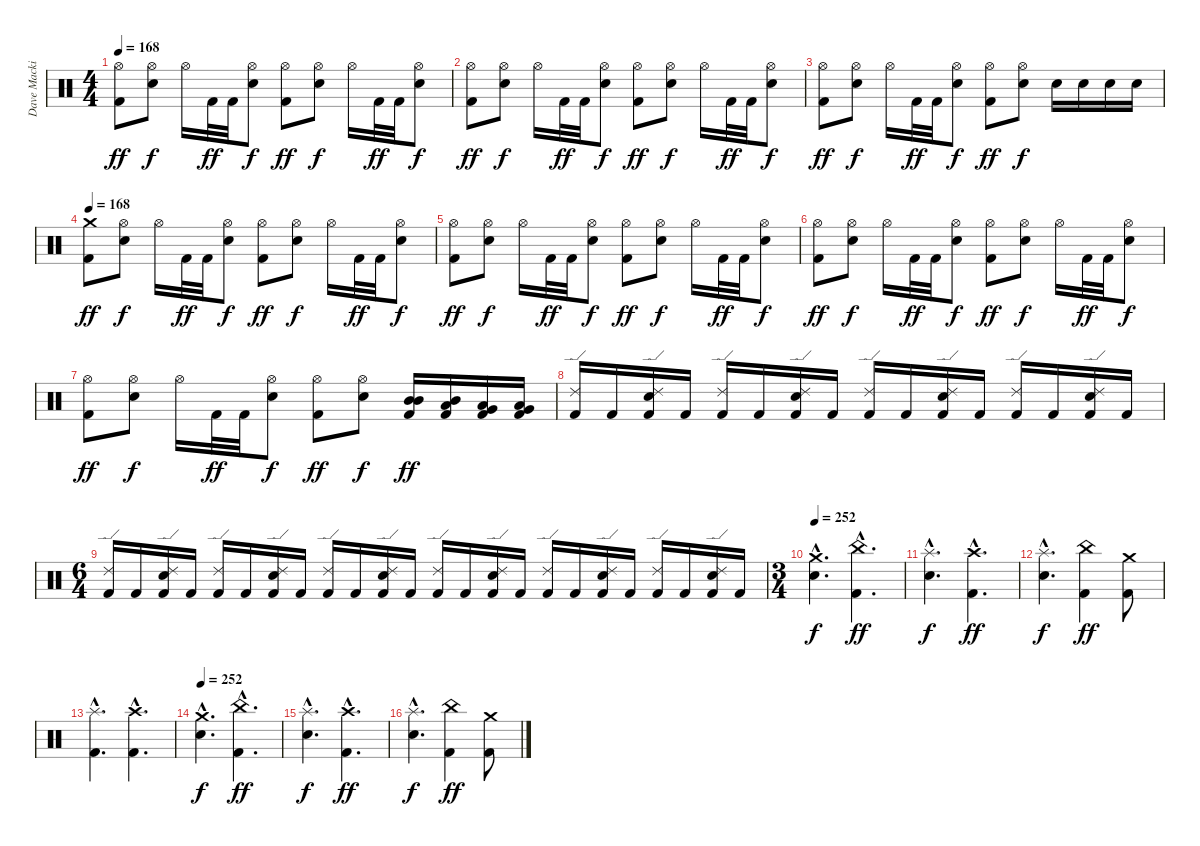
\track ("Dave Mackintosh" "Dave Macki") {instrument percussion}
\staff {score}
\articulation defaults
\ts (4 4)
\tempo 168
\clef neutral
\ks c
("Hi-Hat (open)" "Kick (hit) 2").8{dy ff} ("Hi-Hat (open)" "Electric Snare (hit)").8{dy f} "Hi-Hat (open)".16 "Kick (hit) 2".32{dy ff} "Kick (hit) 2".32 ("Hi-Hat (open)" "Electric Snare (hit)").8{dy f} ("Hi-Hat (open)" "Kick (hit) 2").8{dy ff} ("Hi-Hat (open)" "Electric Snare (hit)").8{dy f} "Hi-Hat (open)".16 "Kick (hit) 2".32{dy ff} "Kick (hit) 2".32 ("Hi-Hat (open)" "Electric Snare (hit)").8{dy f} |
("Hi-Hat (open)" "Kick (hit) 2").8{dy ff} ("Hi-Hat (open)" "Electric Snare (hit)").8{dy f} "Hi-Hat (open)".16 "Kick (hit) 2".32{dy ff} "Kick (hit) 2".32 ("Hi-Hat (open)" "Electric Snare (hit)").8{dy f} ("Hi-Hat (open)" "Kick (hit) 2").8{dy ff} ("Hi-Hat (open)" "Electric Snare (hit)").8{dy f} "Hi-Hat (open)".16 "Kick (hit) 2".32{dy ff} "Kick (hit) 2".32 ("Hi-Hat (open)" "Electric Snare (hit)").8{dy f} |
("Hi-Hat (open)" "Kick (hit) 2").8{dy ff} ("Hi-Hat (open)" "Electric Snare (hit)").8{dy f} "Hi-Hat (open)".16 "Kick (hit) 2".32{dy ff} "Kick (hit) 2".32 ("Hi-Hat (open)" "Electric Snare (hit)").8{dy f} ("Hi-Hat (open)" "Kick (hit) 2").8{dy ff} ("Hi-Hat (open)" "Electric Snare (hit)").8{dy f} "Electric Snare (hit)".16 "Electric Snare (hit)".16 "Electric Snare (hit)".16 "Electric Snare (hit)".16 |
\tempo 168
("Crash medium (hit)" "Kick (hit) 2").8{dy ff} ("Hi-Hat (open)" "Electric Snare (hit)").8{dy f} "Hi-Hat (open)".16 "Kick (hit) 2".32{dy ff} "Kick (hit) 2".32 ("Hi-Hat (open)" "Electric Snare (hit)").8{dy f} ("Hi-Hat (open)" "Kick (hit) 2").8{dy ff} ("Hi-Hat (open)" "Electric Snare (hit)").8{dy f} "Hi-Hat (open)".16 "Kick (hit) 2".32{dy ff} "Kick (hit) 2".32 ("Hi-Hat (open)" "Electric Snare (hit)").8{dy f} |
("Hi-Hat (open)" "Kick (hit) 2").8{dy ff} ("Hi-Hat (open)" "Electric Snare (hit)").8{dy f} "Hi-Hat (open)".16 "Kick (hit) 2".32{dy ff} "Kick (hit) 2".32 ("Hi-Hat (open)" "Electric Snare (hit)").8{dy f} ("Hi-Hat (open)" "Kick (hit) 2").8{dy ff} ("Hi-Hat (open)" "Electric Snare (hit)").8{dy f} "Hi-Hat (open)".16 "Kick (hit) 2".32{dy ff} "Kick (hit) 2".32 ("Hi-Hat (open)" "Electric Snare (hit)").8{dy f} |
("Hi-Hat (open)" "Kick (hit) 2").8{dy ff} ("Hi-Hat (open)" "Electric Snare (hit)").8{dy f} "Hi-Hat (open)".16 "Kick (hit) 2".32{dy ff} "Kick (hit) 2".32 ("Hi-Hat (open)" "Electric Snare (hit)").8{dy f} ("Hi-Hat (open)" "Kick (hit) 2").8{dy ff} ("Hi-Hat (open)" "Electric Snare (hit)").8{dy f} "Hi-Hat (open)".16 "Kick (hit) 2".32{dy ff} "Kick (hit) 2".32 ("Hi-Hat (open)" "Electric Snare (hit)").8{dy f} |
("Hi-Hat (open)" "Kick (hit) 2").8{dy ff} ("Hi-Hat (open)" "Electric Snare (hit)").8{dy f} "Hi-Hat (open)".16 "Kick (hit) 2".32{dy ff} "Kick (hit) 2".32 ("Hi-Hat (open)" "Electric Snare (hit)").8{dy f} ("Hi-Hat (open)" "Kick (hit) 2").8{dy ff} ("Hi-Hat (open)" "Electric Snare (hit)").8{dy f} ("Mid Tom (hit)" "Mid Tom (hit)" "Kick (hit) 2").16{dy ff} ("Mid Tom (hit)" "Low Tom (hit)" "Kick (hit) 2").16 ("Low Tom (hit)" "Very Low Tom (hit)" "Kick (hit) 2").16 ("Low Tom (hit)" "Very Low Tom (hit)" "Kick (hit) 2").16 |
("Ride (edge) 2" "Kick (hit) 2").16 "Kick (hit) 2".16 ("Ride (edge) 2" "Electric Snare (hit)" "Kick (hit) 2").16 "Kick (hit) 2".16 ("Ride (edge) 2" "Kick (hit) 2").16 "Kick (hit) 2".16 ("Ride (edge) 2" "Electric Snare (hit)" "Kick (hit) 2").16 "Kick (hit) 2".16 ("Ride (edge) 2" "Kick (hit) 2").16 "Kick (hit) 2".16 ("Ride (edge) 2" "Electric Snare (hit)" "Kick (hit) 2").16 "Kick (hit) 2".16 ("Ride (edge) 2" "Kick (hit) 2").16 "Kick (hit) 2".16 ("Ride (edge) 2" "Electric Snare (hit)" "Kick (hit) 2").16 "Kick (hit) 2".16 |
\ts (6 4)
("Ride (edge) 2" "Kick (hit) 2").16 "Kick (hit) 2".16 ("Ride (edge) 2" "Electric Snare (hit)" "Kick (hit) 2").16 "Kick (hit) 2".16 ("Ride (edge) 2" "Kick (hit) 2").16 "Kick (hit) 2".16 ("Ride (edge) 2" "Electric Snare (hit)" "Kick (hit) 2").16 "Kick (hit) 2".16 ("Ride (edge) 2" "Kick (hit) 2").16 "Kick (hit) 2".16 ("Ride (edge) 2" "Electric Snare (hit)" "Kick (hit) 2").16 "Kick (hit) 2".16 ("Ride (edge) 2" "Kick (hit) 2").16 "Kick (hit) 2".16 ("Ride (edge) 2" "Electric Snare (hit)" "Kick (hit) 2").16 "Kick (hit) 2".16 ("Ride (edge) 2" "Kick (hit) 2").16 "Kick (hit) 2".16 ("Ride (edge) 2" "Electric Snare (hit)" "Kick (hit) 2").16 "Kick (hit) 2".16 ("Ride (edge) 2" "Kick (hit) 2").16 "Kick (hit) 2".16 ("Ride (edge) 2" "Electric Snare (hit)" "Kick (hit) 2").16 "Kick (hit) 2".16 |
\ts (3 4)
\tempo 252
("Crash medium (hit)"{hac} "Electric Snare (hit)"{hac}).4{d dy f} ("China (hit)"{hac} "Kick (hit) 2"{hac}).4{d dy ff} |
("Splash (hit)"{hac} "Electric Snare (hit)"{hac}).4{d dy f} ("Crash high (hit)"{hac} "Kick (hit) 2"{hac}).4{d dy ff} |
("Splash (hit)"{hac} "Electric Snare (hit)"{hac}).4{d dy f} ("China (hit)" "Kick (hit) 2").4{dy ff} ("Crash medium (hit)" "Kick (hit) 2").8 |
("Splash (hit)"{hac} "Kick (hit) 2"{hac}).4{d} ("Crash high (hit)"{hac} "Kick (hit) 2"{hac}).4{d} |
\tempo 252
("Crash medium (hit)"{hac} "Electric Snare (hit)"{hac}).4{d dy f} ("China (hit)"{hac} "Kick (hit) 2"{hac}).4{d dy ff} |
("Splash (hit)"{hac} "Electric Snare (hit)"{hac}).4{d dy f} ("Crash high (hit)"{hac} "Kick (hit) 2"{hac}).4{d dy ff} |
("Splash (hit)"{hac} "Electric Snare (hit)"{hac}).4{d dy f} ("China (hit)" "Kick (hit) 2").4{dy ff} ("Crash medium (hit)" "Kick (hit) 2").8
